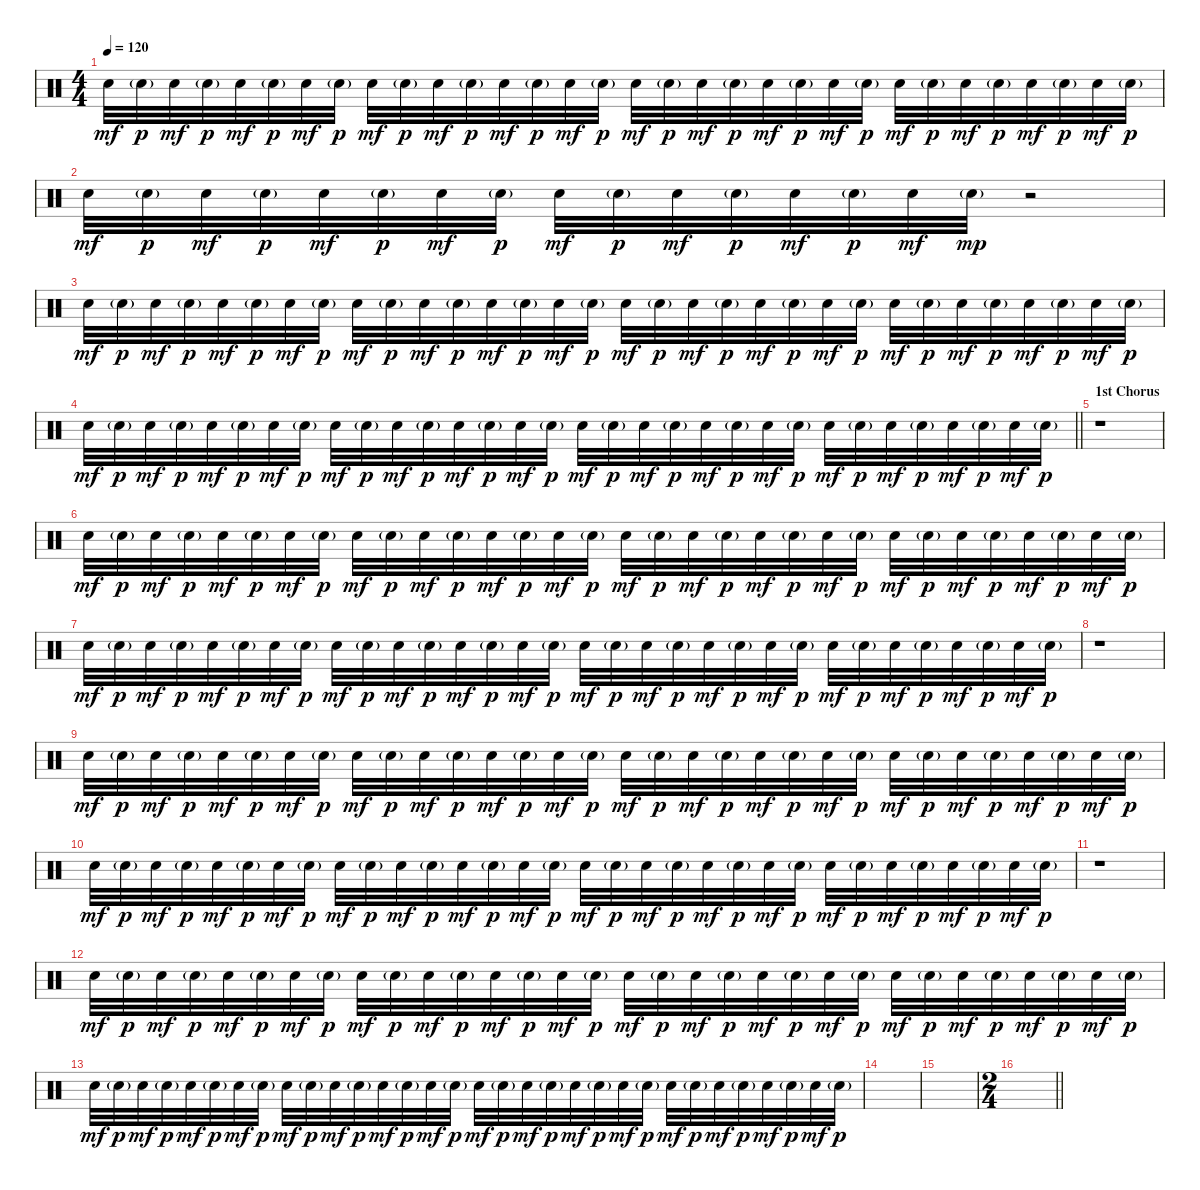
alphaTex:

\track "" {instrument percussion}
\staff {score}
\articulation defaults
\ts (4 4)
\tempo 120
\clef neutral
\ks c "Electric Snare (hit)".32{dy mf} "Electric Snare (hit)"{g}.32{dy p} "Electric Snare (hit)".32{dy mf} "Electric Snare (hit)"{g}.32{dy p} "Electric Snare (hit)".32{dy mf} "Electric Snare (hit)"{g}.32{dy p} "Electric Snare (hit)".32{dy mf} "Electric Snare (hit)"{g}.32{dy p} "Electric Snare (hit)".32{dy mf} "Electric Snare (hit)"{g}.32{dy p} "Electric Snare (hit)".32{dy mf} "Electric Snare (hit)"{g}.32{dy p} "Electric Snare (hit)".32{dy mf} "Electric Snare (hit)"{g}.32{dy p} "Electric Snare (hit)".32{dy mf} "Electric Snare (hit)"{g}.32{dy p} "Electric Snare (hit)".32{dy mf} "Electric Snare (hit)"{g}.32{dy p} "Electric Snare (hit)".32{dy mf} "Electric Snare (hit)"{g}.32{dy p} "Electric Snare (hit)".32{dy mf} "Electric Snare (hit)"{g}.32{dy p} "Electric Snare (hit)".32{dy mf} "Electric Snare (hit)"{g}.32{dy p} "Electric Snare (hit)".32{dy mf} "Electric Snare (hit)"{g}.32{dy p} "Electric Snare (hit)".32{dy mf} "Electric Snare (hit)"{g}.32{dy p} "Electric Snare (hit)".32{dy mf} "Electric Snare (hit)"{g}.32{dy p} "Electric Snare (hit)".32{dy mf} "Electric Snare (hit)"{g}.32{dy p}
|
"Electric Snare (hit)".32{dy mf} "Electric Snare (hit)"{g}.32{dy p} "Electric Snare (hit)".32{dy mf} "Electric Snare (hit)"{g}.32{dy p} "Electric Snare (hit)".32{dy mf} "Electric Snare (hit)"{g}.32{dy p} "Electric Snare (hit)".32{dy mf} "Electric Snare (hit)"{g}.32{dy p} "Electric Snare (hit)".32{dy mf} "Electric Snare (hit)"{g}.32{dy p} "Electric Snare (hit)".32{dy mf} "Electric Snare (hit)"{g}.32{dy p} "Electric Snare (hit)".32{dy mf} "Electric Snare (hit)"{g}.32{dy p} "Electric Snare (hit)".32{dy mf} "Electric Snare (hit)"{g}.32{dy mp} r.2 |
"Electric Snare (hit)".32{dy mf} "Electric Snare (hit)"{g}.32{dy p} "Electric Snare (hit)".32{dy mf} "Electric Snare (hit)"{g}.32{dy p} "Electric Snare (hit)".32{dy mf} "Electric Snare (hit)"{g}.32{dy p} "Electric Snare (hit)".32{dy mf} "Electric Snare (hit)"{g}.32{dy p} "Electric Snare (hit)".32{dy mf} "Electric Snare (hit)"{g}.32{dy p} "Electric Snare (hit)".32{dy mf} "Electric Snare (hit)"{g}.32{dy p} "Electric Snare (hit)".32{dy mf} "Electric Snare (hit)"{g}.32{dy p} "Electric Snare (hit)".32{dy mf} "Electric Snare (hit)"{g}.32{dy p} "Electric Snare (hit)".32{dy mf} "Electric Snare (hit)"{g}.32{dy p} "Electric Snare (hit)".32{dy mf} "Electric Snare (hit)"{g}.32{dy p} "Electric Snare (hit)".32{dy mf} "Electric Snare (hit)"{g}.32{dy p} "Electric Snare (hit)".32{dy mf} "Electric Snare (hit)"{g}.32{dy p} "Electric Snare (hit)".32{dy mf} "Electric Snare (hit)"{g}.32{dy p} "Electric Snare (hit)".32{dy mf} "Electric Snare (hit)"{g}.32{dy p} "Electric Snare (hit)".32{dy mf} "Electric Snare (hit)"{g}.32{dy p} "Electric Snare (hit)".32{dy mf} "Electric Snare (hit)"{g}.32{dy p} |
\barLineRight lightlight "Electric Snare (hit)".32{dy mf} "Electric Snare (hit)"{g}.32{dy p} "Electric Snare (hit)".32{dy mf} "Electric Snare (hit)"{g}.32{dy p} "Electric Snare (hit)".32{dy mf} "Electric Snare (hit)"{g}.32{dy p} "Electric Snare (hit)".32{dy mf} "Electric Snare (hit)"{g}.32{dy p} "Electric Snare (hit)".32{dy mf} "Electric Snare (hit)"{g}.32{dy p} "Electric Snare (hit)".32{dy mf} "Electric Snare (hit)"{g}.32{dy p} "Electric Snare (hit)".32{dy mf} "Electric Snare (hit)"{g}.32{dy p} "Electric Snare (hit)".32{dy mf} "Electric Snare (hit)"{g}.32{dy p} "Electric Snare (hit)".32{dy mf} "Electric Snare (hit)"{g}.32{dy p} "Electric Snare (hit)".32{dy mf} "Electric Snare (hit)"{g}.32{dy p} "Electric Snare (hit)".32{dy mf} "Electric Snare (hit)"{g}.32{dy p} "Electric Snare (hit)".32{dy mf} "Electric Snare (hit)"{g}.32{dy p} "Electric Snare (hit)".32{dy mf} "Electric Snare (hit)"{g}.32{dy p} "Electric Snare (hit)".32{dy mf} "Electric Snare (hit)"{g}.32{dy p} "Electric Snare (hit)".32{dy mf} "Electric Snare (hit)"{g}.32{dy p} "Electric Snare (hit)".32{dy mf} "Electric Snare (hit)"{g}.32{dy p}
|
\section ("" "1st Chorus")
r.1 |
"Electric Snare (hit)".32{dy mf} "Electric Snare (hit)"{g}.32{dy p} "Electric Snare (hit)".32{dy mf} "Electric Snare (hit)"{g}.32{dy p} "Electric Snare (hit)".32{dy mf} "Electric Snare (hit)"{g}.32{dy p} "Electric Snare (hit)".32{dy mf} "Electric Snare (hit)"{g}.32{dy p} "Electric Snare (hit)".32{dy mf} "Electric Snare (hit)"{g}.32{dy p} "Electric Snare (hit)".32{dy mf} "Electric Snare (hit)"{g}.32{dy p} "Electric Snare (hit)".32{dy mf} "Electric Snare (hit)"{g}.32{dy p} "Electric Snare (hit)".32{dy mf} "Electric Snare (hit)"{g}.32{dy p} "Electric Snare (hit)".32{dy mf} "Electric Snare (hit)"{g}.32{dy p} "Electric Snare (hit)".32{dy mf} "Electric Snare (hit)"{g}.32{dy p} "Electric Snare (hit)".32{dy mf} "Electric Snare (hit)"{g}.32{dy p} "Electric Snare (hit)".32{dy mf} "Electric Snare (hit)"{g}.32{dy p} "Electric Snare (hit)".32{dy mf} "Electric Snare (hit)"{g}.32{dy p} "Electric Snare (hit)".32{dy mf} "Electric Snare (hit)"{g}.32{dy p} "Electric Snare (hit)".32{dy mf} "Electric Snare (hit)"{g}.32{dy p} "Electric Snare (hit)".32{dy mf} "Electric Snare (hit)"{g}.32{dy p} |
"Electric Snare (hit)".32{dy mf} "Electric Snare (hit)"{g}.32{dy p} "Electric Snare (hit)".32{dy mf} "Electric Snare (hit)"{g}.32{dy p} "Electric Snare (hit)".32{dy mf} "Electric Snare (hit)"{g}.32{dy p} "Electric Snare (hit)".32{dy mf} "Electric Snare (hit)"{g}.32{dy p} "Electric Snare (hit)".32{dy mf} "Electric Snare (hit)"{g}.32{dy p} "Electric Snare (hit)".32{dy mf} "Electric Snare (hit)"{g}.32{dy p} "Electric Snare (hit)".32{dy mf} "Electric Snare (hit)"{g}.32{dy p} "Electric Snare (hit)".32{dy mf} "Electric Snare (hit)"{g}.32{dy p} "Electric Snare (hit)".32{dy mf} "Electric Snare (hit)"{g}.32{dy p} "Electric Snare (hit)".32{dy mf} "Electric Snare (hit)"{g}.32{dy p} "Electric Snare (hit)".32{dy mf} "Electric Snare (hit)"{g}.32{dy p} "Electric Snare (hit)".32{dy mf} "Electric Snare (hit)"{g}.32{dy p} "Electric Snare (hit)".32{dy mf} "Electric Snare (hit)"{g}.32{dy p} "Electric Snare (hit)".32{dy mf} "Electric Snare (hit)"{g}.32{dy p} "Electric Snare (hit)".32{dy mf} "Electric Snare (hit)"{g}.32{dy p} "Electric Snare (hit)".32{dy mf} "Electric Snare (hit)"{g}.32{dy p} |
r.1 |
"Electric Snare (hit)".32{dy mf} "Electric Snare (hit)"{g}.32{dy p} "Electric Snare (hit)".32{dy mf} "Electric Snare (hit)"{g}.32{dy p} "Electric Snare (hit)".32{dy mf} "Electric Snare (hit)"{g}.32{dy p} "Electric Snare (hit)".32{dy mf} "Electric Snare (hit)"{g}.32{dy p} "Electric Snare (hit)".32{dy mf} "Electric Snare (hit)"{g}.32{dy p} "Electric Snare (hit)".32{dy mf} "Electric Snare (hit)"{g}.32{dy p} "Electric Snare (hit)".32{dy mf} "Electric Snare (hit)"{g}.32{dy p} "Electric Snare (hit)".32{dy mf} "Electric Snare (hit)"{g}.32{dy p} "Electric Snare (hit)".32{dy mf} "Electric Snare (hit)"{g}.32{dy p} "Electric Snare (hit)".32{dy mf} "Electric Snare (hit)"{g}.32{dy p} "Electric Snare (hit)".32{dy mf} "Electric Snare (hit)"{g}.32{dy p} "Electric Snare (hit)".32{dy mf} "Electric Snare (hit)"{g}.32{dy p} "Electric Snare (hit)".32{dy mf} "Electric Snare (hit)"{g}.32{dy p} "Electric Snare (hit)".32{dy mf} "Electric Snare (hit)"{g}.32{dy p} "Electric Snare (hit)".32{dy mf} "Electric Snare (hit)"{g}.32{dy p} "Electric Snare (hit)".32{dy mf} "Electric Snare (hit)"{g}.32{dy p} |
"Electric Snare (hit)".32{dy mf} "Electric Snare (hit)"{g}.32{dy p} "Electric Snare (hit)".32{dy mf} "Electric Snare (hit)"{g}.32{dy p} "Electric Snare (hit)".32{dy mf} "Electric Snare (hit)"{g}.32{dy p} "Electric Snare (hit)".32{dy mf} "Electric Snare (hit)"{g}.32{dy p} "Electric Snare (hit)".32{dy mf} "Electric Snare (hit)"{g}.32{dy p} "Electric Snare (hit)".32{dy mf} "Electric Snare (hit)"{g}.32{dy p} "Electric Snare (hit)".32{dy mf} "Electric Snare (hit)"{g}.32{dy p} "Electric Snare (hit)".32{dy mf} "Electric Snare (hit)"{g}.32{dy p} "Electric Snare (hit)".32{dy mf} "Electric Snare (hit)"{g}.32{dy p} "Electric Snare (hit)".32{dy mf} "Electric Snare (hit)"{g}.32{dy p} "Electric Snare (hit)".32{dy mf} "Electric Snare (hit)"{g}.32{dy p} "Electric Snare (hit)".32{dy mf} "Electric Snare (hit)"{g}.32{dy p} "Electric Snare (hit)".32{dy mf} "Electric Snare (hit)"{g}.32{dy p} "Electric Snare (hit)".32{dy mf} "Electric Snare (hit)"{g}.32{dy p} "Electric Snare (hit)".32{dy mf} "Electric Snare (hit)"{g}.32{dy p} "Electric Snare (hit)".32{dy mf} "Electric Snare (hit)"{g}.32{dy p} |
r.1 |
"Electric Snare (hit)".32{dy mf} "Electric Snare (hit)"{g}.32{dy p} "Electric Snare (hit)".32{dy mf} "Electric Snare (hit)"{g}.32{dy p} "Electric Snare (hit)".32{dy mf} "Electric Snare (hit)"{g}.32{dy p} "Electric Snare (hit)".32{dy mf} "Electric Snare (hit)"{g}.32{dy p} "Electric Snare (hit)".32{dy mf} "Electric Snare (hit)"{g}.32{dy p} "Electric Snare (hit)".32{dy mf} "Electric Snare (hit)"{g}.32{dy p} "Electric Snare (hit)".32{dy mf} "Electric Snare (hit)"{g}.32{dy p} "Electric Snare (hit)".32{dy mf} "Electric Snare (hit)"{g}.32{dy p} "Electric Snare (hit)".32{dy mf} "Electric Snare (hit)"{g}.32{dy p} "Electric Snare (hit)".32{dy mf} "Electric Snare (hit)"{g}.32{dy p} "Electric Snare (hit)".32{dy mf} "Electric Snare (hit)"{g}.32{dy p} "Electric Snare (hit)".32{dy mf} "Electric Snare (hit)"{g}.32{dy p} "Electric Snare (hit)".32{dy mf} "Electric Snare (hit)"{g}.32{dy p} "Electric Snare (hit)".32{dy mf} "Electric Snare (hit)"{g}.32{dy p} "Electric Snare (hit)".32{dy mf} "Electric Snare (hit)"{g}.32{dy p} "Electric Snare (hit)".32{dy mf} "Electric Snare (hit)"{g}.32{dy p} |
"Electric Snare (hit)".32{dy mf} "Electric Snare (hit)"{g}.32{dy p} "Electric Snare (hit)".32{dy mf} "Electric Snare (hit)"{g}.32{dy p} "Electric Snare (hit)".32{dy mf} "Electric Snare (hit)"{g}.32{dy p} "Electric Snare (hit)".32{dy mf} "Electric Snare (hit)"{g}.32{dy p} "Electric Snare (hit)".32{dy mf} "Electric Snare (hit)"{g}.32{dy p} "Electric Snare (hit)".32{dy mf} "Electric Snare (hit)"{g}.32{dy p} "Electric Snare (hit)".32{dy mf} "Electric Snare (hit)"{g}.32{dy p} "Electric Snare (hit)".32{dy mf} "Electric Snare (hit)"{g}.32{dy p} "Electric Snare (hit)".32{dy mf} "Electric Snare (hit)"{g}.32{dy p} "Electric Snare (hit)".32{dy mf} "Electric Snare (hit)"{g}.32{dy p} "Electric Snare (hit)".32{dy mf} "Electric Snare (hit)"{g}.32{dy p} "Electric Snare (hit)".32{dy mf} "Electric Snare (hit)"{g}.32{dy p} "Electric Snare (hit)".32{dy mf} "Electric Snare (hit)"{g}.32{dy p} "Electric Snare (hit)".32{dy mf} "Electric Snare (hit)"{g}.32{dy p} "Electric Snare (hit)".32{dy mf} "Electric Snare (hit)"{g}.32{dy p} "Electric Snare (hit)".32{dy mf} "Electric Snare (hit)"{g}.32{dy p} |
|
|
\ts (2 4)
\barLineRight lightlight
